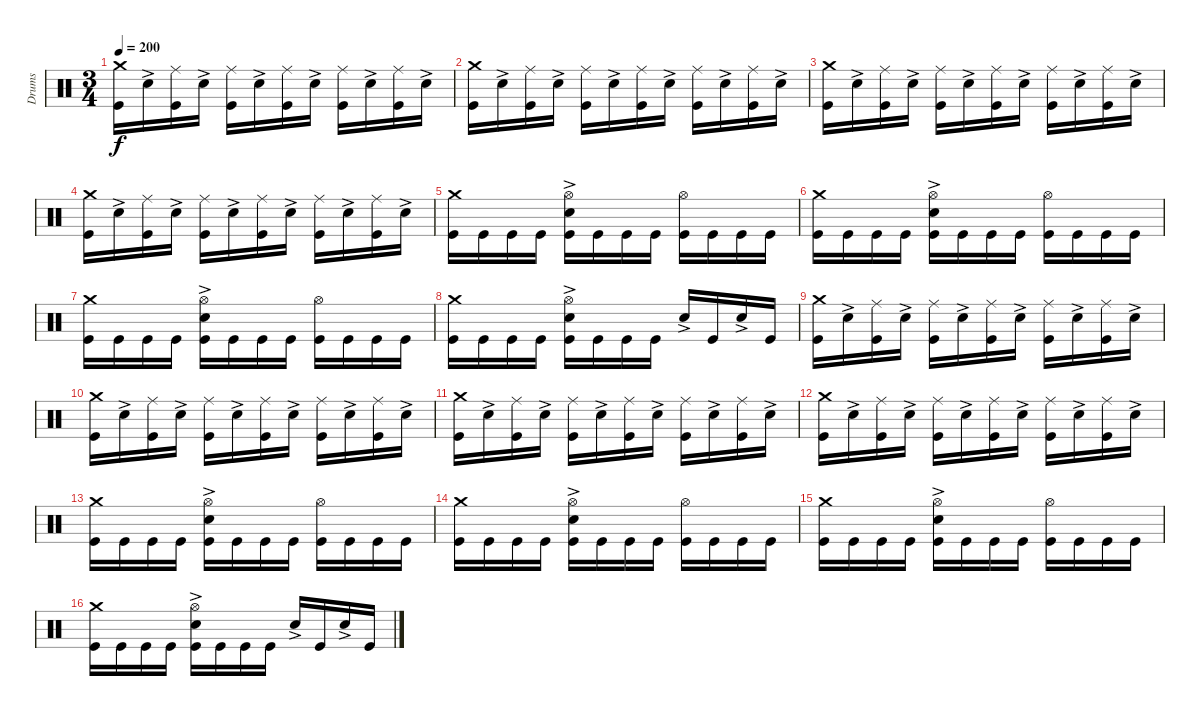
\track ("Drums" "Drums") {instrument percussion}
\staff {score}
\articulation defaults
\ts (3 4)
\tempo 200
\clef neutral
\ks c
("Kick (hit)" "Crash medium (hit)").16{dy f} "Snare (hit) 2"{ac}.16 ("Kick (hit)" "Ride (middle)").16 "Snare (hit) 2"{ac}.16 ("Kick (hit)" "Ride (middle)").16 "Snare (hit) 2"{ac}.16 ("Kick (hit)" "Ride (middle)").16 "Snare (hit) 2"{ac}.16 ("Kick (hit)" "Ride (middle)").16 "Snare (hit) 2"{ac}.16 ("Kick (hit)" "Ride (middle)").16 "Snare (hit) 2"{ac}.16 |
("Kick (hit)" "Crash medium (hit)").16 "Snare (hit) 2"{ac}.16 ("Kick (hit)" "Ride (middle)").16 "Snare (hit) 2"{ac}.16 ("Kick (hit)" "Ride (middle)").16 "Snare (hit) 2"{ac}.16 ("Kick (hit)" "Ride (middle)").16 "Snare (hit) 2"{ac}.16 ("Kick (hit)" "Ride (middle)").16 "Snare (hit) 2"{ac}.16 ("Kick (hit)" "Ride (middle)").16 "Snare (hit) 2"{ac}.16 |
("Kick (hit)" "Crash medium (hit)").16 "Snare (hit) 2"{ac}.16 ("Kick (hit)" "Ride (middle)").16 "Snare (hit) 2"{ac}.16 ("Kick (hit)" "Ride (middle)").16 "Snare (hit) 2"{ac}.16 ("Kick (hit)" "Ride (middle)").16 "Snare (hit) 2"{ac}.16 ("Kick (hit)" "Ride (middle)").16 "Snare (hit) 2"{ac}.16 ("Kick (hit)" "Ride (middle)").16 "Snare (hit) 2"{ac}.16 |
("Kick (hit)" "Crash medium (hit)").16 "Snare (hit) 2"{ac}.16 ("Kick (hit)" "Ride (middle)").16 "Snare (hit) 2"{ac}.16 ("Kick (hit)" "Ride (middle)").16 "Snare (hit) 2"{ac}.16 ("Kick (hit)" "Ride (middle)").16 "Snare (hit) 2"{ac}.16 ("Kick (hit)" "Ride (middle)").16 "Snare (hit) 2"{ac}.16 ("Kick (hit)" "Ride (middle)").16 "Snare (hit) 2"{ac}.16 |
("Kick (hit)" "Crash medium (hit)").16 "Kick (hit)".16 "Kick (hit)".16 "Kick (hit)".16 ("Kick (hit)" "Hi-Hat (open)" "Snare (hit) 2"{ac}).16 "Kick (hit)".16 "Kick (hit)".16 "Kick (hit)".16 ("Kick (hit)" "Hi-Hat (open)").16 "Kick (hit)".16 "Kick (hit)".16 "Kick (hit)".16 |
("Kick (hit)" "Crash medium (hit)").16 "Kick (hit)".16 "Kick (hit)".16 "Kick (hit)".16 ("Kick (hit)" "Hi-Hat (open)" "Snare (hit) 2"{ac}).16 "Kick (hit)".16 "Kick (hit)".16 "Kick (hit)".16 ("Kick (hit)" "Hi-Hat (open)").16 "Kick (hit)".16 "Kick (hit)".16 "Kick (hit)".16 |
("Kick (hit)" "Crash medium (hit)").16 "Kick (hit)".16 "Kick (hit)".16 "Kick (hit)".16 ("Kick (hit)" "Hi-Hat (open)" "Snare (hit) 2"{ac}).16 "Kick (hit)".16 "Kick (hit)".16 "Kick (hit)".16 ("Kick (hit)" "Hi-Hat (open)").16 "Kick (hit)".16 "Kick (hit)".16 "Kick (hit)".16 |
("Kick (hit)" "Crash medium (hit)").16 "Kick (hit)".16 "Kick (hit)".16 "Kick (hit)".16 ("Kick (hit)" "Hi-Hat (open)" "Snare (hit) 2"{ac}).16 "Kick (hit)".16 "Kick (hit)".16 "Kick (hit)".16 "Snare (hit) 2"{ac}.16 "Kick (hit)".16 "Snare (hit) 2"{ac}.16 "Kick (hit)".16 |
("Kick (hit)" "Crash medium (hit)").16 "Snare (hit) 2"{ac}.16 ("Kick (hit)" "Ride (middle)").16 "Snare (hit) 2"{ac}.16 ("Kick (hit)" "Ride (middle)").16 "Snare (hit) 2"{ac}.16 ("Kick (hit)" "Ride (middle)").16 "Snare (hit) 2"{ac}.16 ("Kick (hit)" "Ride (middle)").16 "Snare (hit) 2"{ac}.16 ("Kick (hit)" "Ride (middle)").16 "Snare (hit) 2"{ac}.16 |
("Kick (hit)" "Crash medium (hit)").16 "Snare (hit) 2"{ac}.16 ("Kick (hit)" "Ride (middle)").16 "Snare (hit) 2"{ac}.16 ("Kick (hit)" "Ride (middle)").16 "Snare (hit) 2"{ac}.16 ("Kick (hit)" "Ride (middle)").16 "Snare (hit) 2"{ac}.16 ("Kick (hit)" "Ride (middle)").16 "Snare (hit) 2"{ac}.16 ("Kick (hit)" "Ride (middle)").16 "Snare (hit) 2"{ac}.16 |
("Kick (hit)" "Crash medium (hit)").16 "Snare (hit) 2"{ac}.16 ("Kick (hit)" "Ride (middle)").16 "Snare (hit) 2"{ac}.16 ("Kick (hit)" "Ride (middle)").16 "Snare (hit) 2"{ac}.16 ("Kick (hit)" "Ride (middle)").16 "Snare (hit) 2"{ac}.16 ("Kick (hit)" "Ride (middle)").16 "Snare (hit) 2"{ac}.16 ("Kick (hit)" "Ride (middle)").16 "Snare (hit) 2"{ac}.16 |
("Kick (hit)" "Crash medium (hit)").16 "Snare (hit) 2"{ac}.16 ("Kick (hit)" "Ride (middle)").16 "Snare (hit) 2"{ac}.16 ("Kick (hit)" "Ride (middle)").16 "Snare (hit) 2"{ac}.16 ("Kick (hit)" "Ride (middle)").16 "Snare (hit) 2"{ac}.16 ("Kick (hit)" "Ride (middle)").16 "Snare (hit) 2"{ac}.16 ("Kick (hit)" "Ride (middle)").16 "Snare (hit) 2"{ac}.16 |
("Kick (hit)" "Crash medium (hit)").16 "Kick (hit)".16 "Kick (hit)".16 "Kick (hit)".16 ("Kick (hit)" "Hi-Hat (open)" "Snare (hit) 2"{ac}).16 "Kick (hit)".16 "Kick (hit)".16 "Kick (hit)".16 ("Kick (hit)" "Hi-Hat (open)").16 "Kick (hit)".16 "Kick (hit)".16 "Kick (hit)".16 |
("Kick (hit)" "Crash medium (hit)").16 "Kick (hit)".16 "Kick (hit)".16 "Kick (hit)".16 ("Kick (hit)" "Hi-Hat (open)" "Snare (hit) 2"{ac}).16 "Kick (hit)".16 "Kick (hit)".16 "Kick (hit)".16 ("Kick (hit)" "Hi-Hat (open)").16 "Kick (hit)".16 "Kick (hit)".16 "Kick (hit)".16 |
("Kick (hit)" "Crash medium (hit)").16 "Kick (hit)".16 "Kick (hit)".16 "Kick (hit)".16 ("Kick (hit)" "Hi-Hat (open)" "Snare (hit) 2"{ac}).16 "Kick (hit)".16 "Kick (hit)".16 "Kick (hit)".16 ("Kick (hit)" "Hi-Hat (open)").16 "Kick (hit)".16 "Kick (hit)".16 "Kick (hit)".16 |
("Kick (hit)" "Crash medium (hit)").16 "Kick (hit)".16 "Kick (hit)".16 "Kick (hit)".16 ("Kick (hit)" "Hi-Hat (open)" "Snare (hit) 2"{ac}).16 "Kick (hit)".16 "Kick (hit)".16 "Kick (hit)".16 "Snare (hit) 2"{ac}.16 "Kick (hit)".16 "Snare (hit) 2"{ac}.16 "Kick (hit)".16
